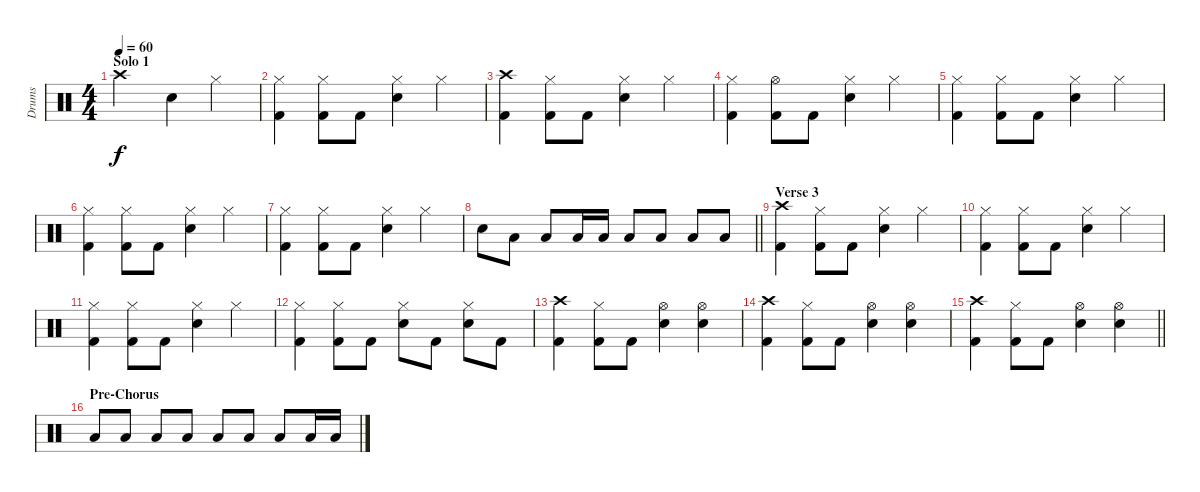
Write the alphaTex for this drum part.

\track ("Drums" "Drums") {instrument percussion}
\staff {score}
\articulation defaults
\ts (4 4)
\section ("" "Solo 1")
\tempo 60
\clef neutral
\ks c "Crash high (hit)".2{dy f} "Snare (hit) 2".4 "Hi-Hat (closed)".4
|
("Hi-Hat (closed)" "Kick (hit) 2").4 ("Hi-Hat (closed)" "Kick (hit) 2").8 "Kick (hit) 2".8 ("Hi-Hat (closed)" "Snare (hit) 2").4 "Hi-Hat (closed)".4 |
("Crash high (hit)" "Kick (hit) 2").4 ("Hi-Hat (closed)" "Kick (hit) 2").8 "Kick (hit) 2".8 ("Hi-Hat (closed)" "Snare (hit) 2").4 "Hi-Hat (closed)".4 |
("Hi-Hat (closed)" "Kick (hit) 2").4 ("Hi-Hat (open)" "Kick (hit) 2").8 "Kick (hit) 2".8 ("Hi-Hat (closed)" "Snare (hit) 2").4 "Hi-Hat (closed)".4 |
("Hi-Hat (closed)" "Kick (hit) 2").4 ("Hi-Hat (closed)" "Kick (hit) 2").8 "Kick (hit) 2".8 ("Hi-Hat (closed)" "Snare (hit) 2").4 "Hi-Hat (closed)".4 |
("Hi-Hat (closed)" "Kick (hit) 2").4 ("Hi-Hat (closed)" "Kick (hit) 2").8 "Kick (hit) 2".8 ("Hi-Hat (closed)" "Snare (hit) 2").4 "Hi-Hat (closed)".4 |
("Hi-Hat (closed)" "Kick (hit) 2").4 ("Hi-Hat (closed)" "Kick (hit) 2").8 "Kick (hit) 2".8 ("Hi-Hat (closed)" "Snare (hit) 2").4 "Hi-Hat (closed)".4 |
\barLineRight lightlight "Snare (hit) 2".8 "Low Tom (hit)".8 "Low Tom (hit)".8 "Low Tom (hit)".16 "Low Tom (hit)".16 "Low Tom (hit)".8 "Low Tom (hit)".8 "Low Tom (hit)".8 "Low Tom (hit)".8
|
\section ("" "Verse 3")
("Crash high (hit)" "Kick (hit) 2").4 ("Hi-Hat (closed)" "Kick (hit) 2").8 "Kick (hit) 2".8 ("Hi-Hat (closed)" "Snare (hit) 2").4 "Hi-Hat (closed)".4 |
("Hi-Hat (closed)" "Kick (hit) 2").4 ("Hi-Hat (closed)" "Kick (hit) 2").8 "Kick (hit) 2".8 ("Hi-Hat (closed)" "Snare (hit) 2").4 "Hi-Hat (closed)".4 |
("Hi-Hat (closed)" "Kick (hit) 2").4 ("Hi-Hat (closed)" "Kick (hit) 2").8 "Kick (hit) 2".8 ("Hi-Hat (closed)" "Snare (hit) 2").4 "Hi-Hat (closed)".4 |
("Hi-Hat (closed)" "Kick (hit) 2").4 ("Hi-Hat (closed)" "Kick (hit) 2").8 "Kick (hit) 2".8 ("Hi-Hat (closed)" "Snare (hit) 2").8 "Kick (hit) 2".8 ("Hi-Hat (closed)" "Snare (hit) 2").8 "Kick (hit) 2".8 |
("Crash high (hit)" "Kick (hit) 2").4 ("Hi-Hat (closed)" "Kick (hit) 2").8 "Kick (hit) 2".8 ("Hi-Hat (open)" "Snare (hit) 2").4 ("Hi-Hat (open)" "Snare (hit) 2").4 |
("Crash high (hit)" "Kick (hit) 2").4 ("Hi-Hat (closed)" "Kick (hit) 2").8 "Kick (hit) 2".8 ("Hi-Hat (open)" "Snare (hit) 2").4 ("Hi-Hat (open)" "Snare (hit) 2").4 |
\barLineRight lightlight
("Crash high (hit)" "Kick (hit) 2").4 ("Hi-Hat (closed)" "Kick (hit) 2").8 "Kick (hit) 2".8 ("Hi-Hat (open)" "Snare (hit) 2").4 ("Hi-Hat (open)" "Snare (hit) 2").4 |
\section ("" "Pre-Chorus")
"Low Tom (hit)".8 "Low Tom (hit)".8 "Low Tom (hit)".8 "Low Tom (hit)".8 "Low Tom (hit)".8 "Low Tom (hit)".8 "Low Tom (hit)".8 "Low Tom (hit)".16 "Low Tom (hit)".16
